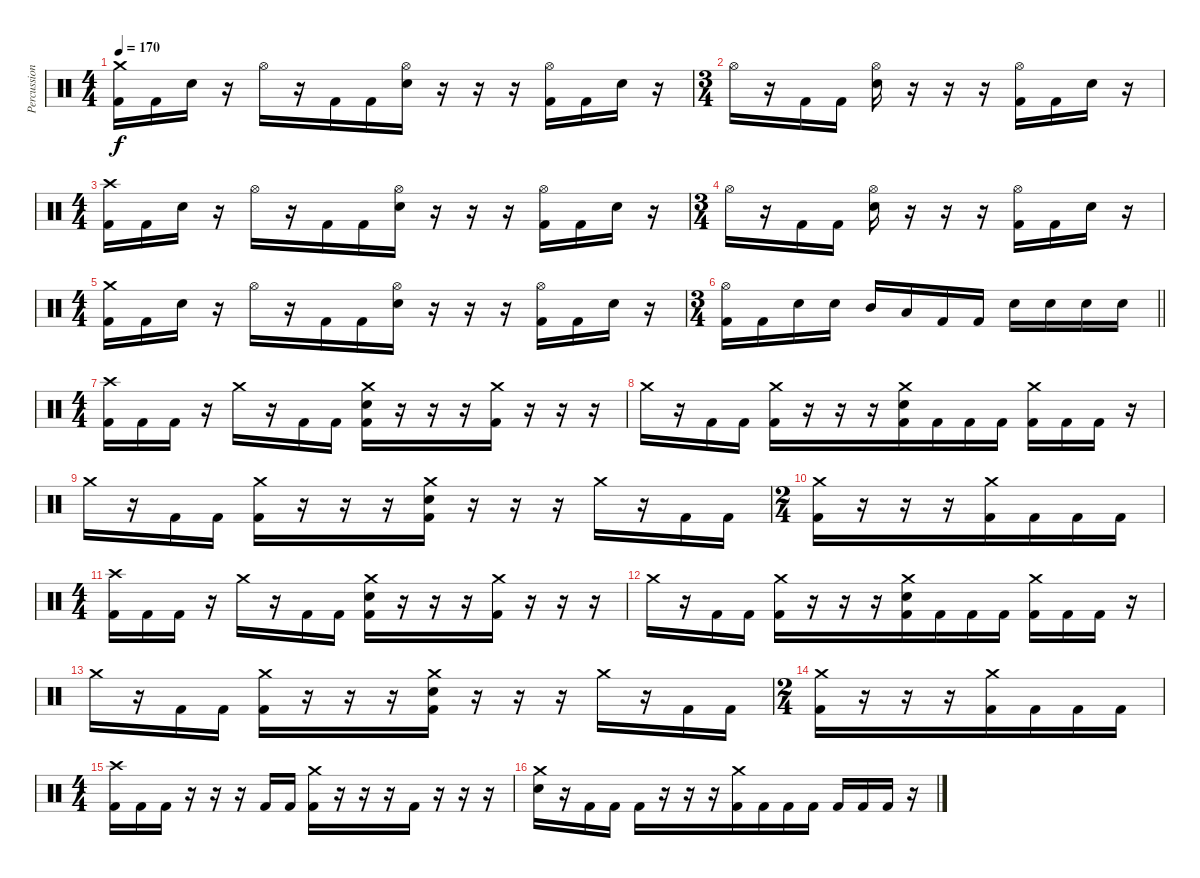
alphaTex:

\track ("Percussion" "Percussion") {instrument percussion}
\staff {score}
\articulation defaults
\ts (4 4)
\tempo 170
\clef neutral
\ks c
("Crash medium (hit)" "Kick (hit) 2").16{dy f} "Kick (hit) 2".16 "Electric Snare (hit)".16 r.16 "Hi-Hat (open)".16 r.16 "Kick (hit) 2".16 "Kick (hit) 2".16{beam merge} ("Hi-Hat (open)" "Electric Snare (hit)").16 r.16{beam merge} r.16 r.16{beam merge} ("Hi-Hat (open)" "Kick (hit) 2").16{beam merge} "Kick (hit) 2".16{beam merge} "Electric Snare (hit)".16 r.16 |
\ts (3 4)
"Hi-Hat (open)".16 r.16 "Kick (hit) 2".16 "Kick (hit) 2".16 ("Hi-Hat (open)" "Electric Snare (hit)").16 r.16 r.16 r.16{beam merge} ("Hi-Hat (open)" "Kick (hit) 2").16 "Kick (hit) 2".16 "Electric Snare (hit)".16{beam merge} r.16 |
\ts (4 4)
("Crash high (hit)" "Kick (hit) 2").16 "Kick (hit) 2".16 "Electric Snare (hit)".16 r.16 "Hi-Hat (open)".16 r.16 "Kick (hit) 2".16 "Kick (hit) 2".16{beam merge} ("Hi-Hat (open)" "Electric Snare (hit)").16 r.16{beam merge} r.16 r.16{beam merge} ("Hi-Hat (open)" "Kick (hit) 2").16{beam merge} "Kick (hit) 2".16{beam merge} "Electric Snare (hit)".16 r.16 |
\ts (3 4)
"Hi-Hat (open)".16 r.16 "Kick (hit) 2".16 "Kick (hit) 2".16 ("Hi-Hat (open)" "Electric Snare (hit)").16 r.16 r.16 r.16{beam merge} ("Hi-Hat (open)" "Kick (hit) 2").16 "Kick (hit) 2".16 "Electric Snare (hit)".16{beam merge} r.16 |
\ts (4 4)
("Crash medium (hit)" "Kick (hit) 2").16 "Kick (hit) 2".16 "Electric Snare (hit)".16 r.16 "Hi-Hat (open)".16 r.16 "Kick (hit) 2".16 "Kick (hit) 2".16{beam merge} ("Hi-Hat (open)" "Electric Snare (hit)").16 r.16{beam merge} r.16 r.16{beam merge} ("Hi-Hat (open)" "Kick (hit) 2").16{beam merge} "Kick (hit) 2".16{beam merge} "Electric Snare (hit)".16 r.16 |
\ts (3 4)
\barLineRight lightlight
("Hi-Hat (open)" "Kick (hit) 2").16 "Kick (hit) 2".16 "Electric Snare (hit)".16 "Electric Snare (hit)".16 "Mid Tom (hit)".16 "Low Tom (hit)".16{beam merge} "Kick (hit) 2".16 "Kick (hit) 2".16 "Electric Snare (hit)".16{beam merge} "Electric Snare (hit)".16 "Electric Snare (hit)".16 "Electric Snare (hit)".16 |
\ts (4 4)
\section ("" "")
("Crash high (hit)" "Kick (hit) 2").16{beam merge} "Kick (hit) 2".16 "Kick (hit) 2".16 r.16 "Crash medium (hit)".16 r.16 "Kick (hit) 2".16{beam merge} "Kick (hit) 2".16 ("Crash medium (hit)" "Electric Snare (hit)" "Kick (hit) 2").16{beam merge} r.16 r.16 r.16{beam merge} ("Crash medium (hit)" "Kick (hit) 2").16{beam merge} r.16{beam merge} r.16{beam merge} r.16 |
"Crash medium (hit)".16 r.16{beam merge} "Kick (hit) 2".16 "Kick (hit) 2".16 ("Crash medium (hit)" "Kick (hit) 2").16{beam merge} r.16 r.16 r.16 ("Crash medium (hit)" "Electric Snare (hit)" "Kick (hit) 2").16{beam merge} "Kick (hit) 2".16{beam merge} "Kick (hit) 2".16{beam merge} "Kick (hit) 2".16 ("Crash medium (hit)" "Kick (hit) 2").16{beam merge} "Kick (hit) 2".16{beam merge} "Kick (hit) 2".16 r.16 |
"Crash medium (hit)".16 r.16 "Kick (hit) 2".16 "Kick (hit) 2".16 ("Crash medium (hit)" "Kick (hit) 2").16{beam merge} r.16 r.16{beam merge} r.16 ("Crash medium (hit)" "Electric Snare (hit)" "Kick (hit) 2").16 r.16{beam merge} r.16{beam merge} r.16 "Crash medium (hit)".16 r.16 "Kick (hit) 2".16 "Kick (hit) 2".16 |
\ts (2 4)
("Crash medium (hit)" "Kick (hit) 2").16{beam merge} r.16 r.16 r.16 ("Crash medium (hit)" "Kick (hit) 2").16 "Kick (hit) 2".16 "Kick (hit) 2".16{beam merge} "Kick (hit) 2".16 |
\ts (4 4)
("Crash high (hit)" "Kick (hit) 2").16{beam merge} "Kick (hit) 2".16 "Kick (hit) 2".16 r.16 "Crash medium (hit)".16 r.16 "Kick (hit) 2".16{beam merge} "Kick (hit) 2".16 ("Crash medium (hit)" "Electric Snare (hit)" "Kick (hit) 2").16{beam merge} r.16 r.16 r.16{beam merge} ("Crash medium (hit)" "Kick (hit) 2").16{beam merge} r.16{beam merge} r.16{beam merge} r.16 |
"Crash medium (hit)".16 r.16{beam merge} "Kick (hit) 2".16 "Kick (hit) 2".16 ("Crash medium (hit)" "Kick (hit) 2").16{beam merge} r.16 r.16 r.16 ("Crash medium (hit)" "Electric Snare (hit)" "Kick (hit) 2").16{beam merge} "Kick (hit) 2".16{beam merge} "Kick (hit) 2".16{beam merge} "Kick (hit) 2".16 ("Crash medium (hit)" "Kick (hit) 2").16{beam merge} "Kick (hit) 2".16{beam merge} "Kick (hit) 2".16 r.16 |
"Crash medium (hit)".16 r.16 "Kick (hit) 2".16 "Kick (hit) 2".16 ("Crash medium (hit)" "Kick (hit) 2").16{beam merge} r.16 r.16{beam merge} r.16 ("Crash medium (hit)" "Electric Snare (hit)" "Kick (hit) 2").16 r.16{beam merge} r.16{beam merge} r.16 "Crash medium (hit)".16 r.16 "Kick (hit) 2".16 "Kick (hit) 2".16 |
\ts (2 4)
("Crash medium (hit)" "Kick (hit) 2").16{beam merge} r.16 r.16 r.16 ("Crash medium (hit)" "Kick (hit) 2").16 "Kick (hit) 2".16 "Kick (hit) 2".16{beam merge} "Kick (hit) 2".16 |
\ts (4 4)
("Crash high (hit)" "Kick (hit) 2").16{beam merge} "Kick (hit) 2".16 "Kick (hit) 2".16 r.16 r.16 r.16 "Kick (hit) 2".16{beam merge} "Kick (hit) 2".16 ("Crash medium (hit)" "Kick (hit) 2").16{beam merge} r.16 r.16 r.16{beam merge} "Kick (hit) 2".16{beam merge} r.16{beam merge} r.16{beam merge} r.16 |
("Crash medium (hit)" "Electric Snare (hit)").16 r.16{beam merge} "Kick (hit) 2".16 "Kick (hit) 2".16 "Kick (hit) 2".16{beam merge} r.16 r.16 r.16 ("Crash medium (hit)" "Kick (hit) 2").16{beam merge} "Kick (hit) 2".16{beam merge} "Kick (hit) 2".16{beam merge} "Kick (hit) 2".16 "Kick (hit) 2".16{beam merge} "Kick (hit) 2".16{beam merge} "Kick (hit) 2".16 r.16
